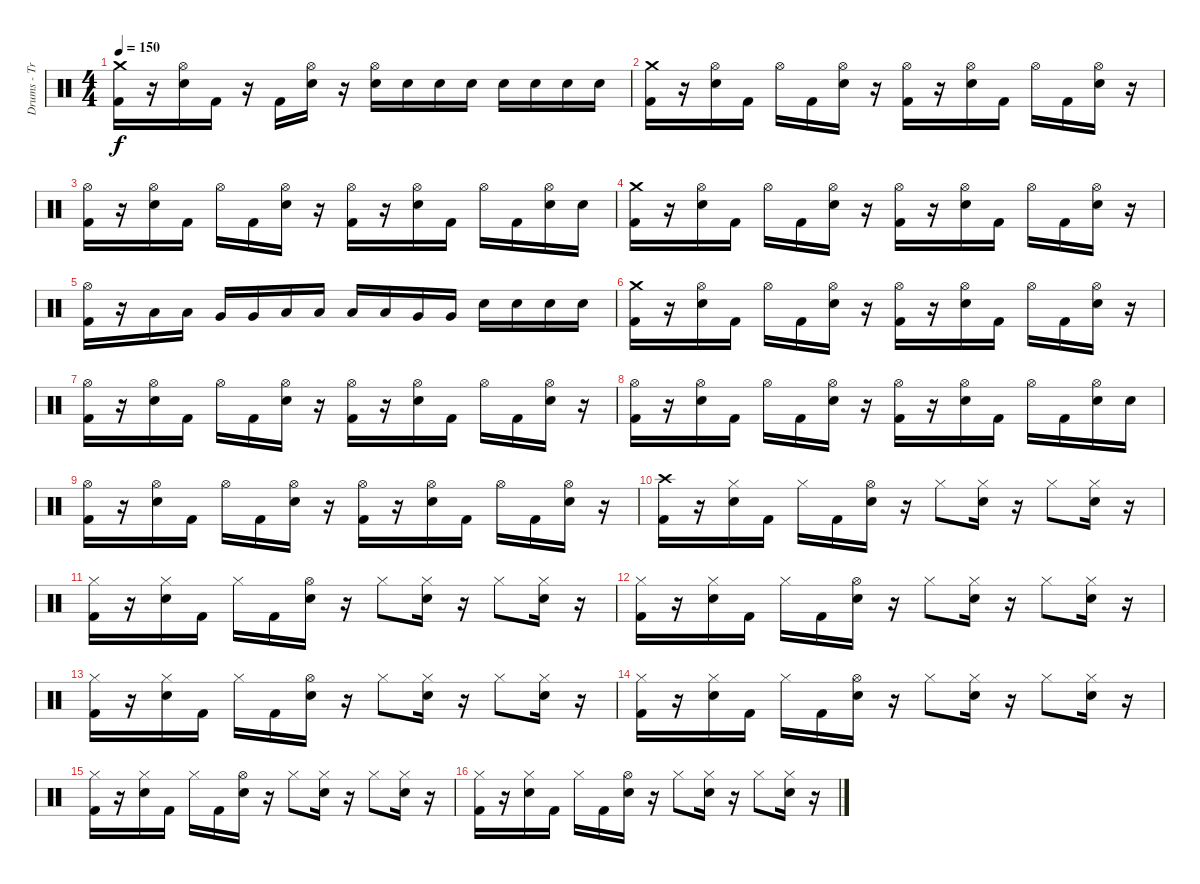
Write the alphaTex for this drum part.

\track ("Drums - Travis Barker" "Drums - Tr") {instrument percussion}
\staff {score}
\articulation defaults
\ts (4 4)
\tempo 150
\clef neutral
\ks c
("Crash medium (hit)" "Kick (hit) 2").16{dy f} r.16 ("Hi-Hat (open)" "Electric Snare (hit)").16 "Kick (hit) 2".16 r.16 "Kick (hit) 2".16 ("Hi-Hat (open)" "Electric Snare (hit)").16 r.16 ("Hi-Hat (open)" "Electric Snare (hit)").16 "Electric Snare (hit)".16 "Electric Snare (hit)".16 "Electric Snare (hit)".16 "Electric Snare (hit)".16 "Electric Snare (hit)".16 "Electric Snare (hit)".16 "Electric Snare (hit)".16 |
("Crash medium (hit)" "Kick (hit) 2").16 r.16 ("Hi-Hat (open)" "Electric Snare (hit)").16 "Kick (hit) 2".16 "Hi-Hat (open)".16 "Kick (hit) 2".16 ("Hi-Hat (open)" "Electric Snare (hit)").16 r.16 ("Hi-Hat (open)" "Kick (hit) 2").16 r.16 ("Hi-Hat (open)" "Electric Snare (hit)").16 "Kick (hit) 2".16 "Hi-Hat (open)".16 "Kick (hit) 2".16 ("Hi-Hat (open)" "Electric Snare (hit)").16 r.16 |
("Hi-Hat (open)" "Kick (hit) 2").16 r.16 ("Hi-Hat (open)" "Electric Snare (hit)").16 "Kick (hit) 2".16 "Hi-Hat (open)".16 "Kick (hit) 2".16 ("Hi-Hat (open)" "Electric Snare (hit)").16 r.16 ("Hi-Hat (open)" "Kick (hit) 2").16 r.16 ("Hi-Hat (open)" "Electric Snare (hit)").16 "Kick (hit) 2".16 "Hi-Hat (open)".16 "Kick (hit) 2".16 ("Hi-Hat (open)" "Electric Snare (hit)").16 "Electric Snare (hit)".16 |
("Crash medium (hit)" "Kick (hit) 2").16 r.16 ("Hi-Hat (open)" "Electric Snare (hit)").16 "Kick (hit) 2".16 "Hi-Hat (open)".16 "Kick (hit) 2".16 ("Hi-Hat (open)" "Electric Snare (hit)").16 r.16 ("Hi-Hat (open)" "Kick (hit) 2").16 r.16 ("Hi-Hat (open)" "Electric Snare (hit)").16 "Kick (hit) 2".16 "Hi-Hat (open)".16 "Kick (hit) 2".16 ("Hi-Hat (open)" "Electric Snare (hit)").16 r.16 |
("Hi-Hat (open)" "Kick (hit) 2").16 r.16 "Low Tom (hit)".16 "Low Tom (hit)".16 "Very Low Tom (hit)".16 "Very Low Tom (hit)".16 "Low Floor Tom (hit)".16 "Low Floor Tom (hit)".16 "Low Tom (hit)".16 "Low Tom (hit)".16 "Very Low Tom (hit)".16 "Very Low Tom (hit)".16 "Electric Snare (hit)".16 "Electric Snare (hit)".16 "Electric Snare (hit)".16 "Electric Snare (hit)".16 |
("Crash medium (hit)" "Kick (hit) 2").16 r.16 ("Hi-Hat (open)" "Electric Snare (hit)").16 "Kick (hit) 2".16 "Hi-Hat (open)".16 "Kick (hit) 2".16 ("Hi-Hat (open)" "Electric Snare (hit)").16 r.16 ("Hi-Hat (open)" "Kick (hit) 2").16 r.16 ("Hi-Hat (open)" "Electric Snare (hit)").16 "Kick (hit) 2".16 "Hi-Hat (open)".16 "Kick (hit) 2".16 ("Hi-Hat (open)" "Electric Snare (hit)").16 r.16 |
("Hi-Hat (open)" "Kick (hit) 2").16 r.16 ("Hi-Hat (open)" "Electric Snare (hit)").16 "Kick (hit) 2".16 "Hi-Hat (open)".16 "Kick (hit) 2".16 ("Hi-Hat (open)" "Electric Snare (hit)").16 r.16 ("Hi-Hat (open)" "Kick (hit) 2").16 r.16 ("Hi-Hat (open)" "Electric Snare (hit)").16 "Kick (hit) 2".16 "Hi-Hat (open)".16 "Kick (hit) 2".16 ("Hi-Hat (open)" "Electric Snare (hit)").16 r.16 |
("Hi-Hat (open)" "Kick (hit) 2").16 r.16 ("Hi-Hat (open)" "Electric Snare (hit)").16 "Kick (hit) 2".16 "Hi-Hat (open)".16 "Kick (hit) 2".16 ("Hi-Hat (open)" "Electric Snare (hit)").16 r.16 ("Hi-Hat (open)" "Kick (hit) 2").16 r.16 ("Hi-Hat (open)" "Electric Snare (hit)").16 "Kick (hit) 2".16 "Hi-Hat (open)".16 "Kick (hit) 2".16 ("Hi-Hat (open)" "Electric Snare (hit)").16 "Electric Snare (hit)".16 |
("Hi-Hat (open)" "Kick (hit) 2").16 r.16 ("Hi-Hat (open)" "Electric Snare (hit)").16 "Kick (hit) 2".16 "Hi-Hat (open)".16 "Kick (hit) 2".16 ("Hi-Hat (open)" "Electric Snare (hit)").16 r.16 ("Hi-Hat (open)" "Kick (hit) 2").16 r.16 ("Hi-Hat (open)" "Electric Snare (hit)").16 "Kick (hit) 2".16 "Hi-Hat (open)".16 "Kick (hit) 2".16 ("Hi-Hat (open)" "Electric Snare (hit)").16 r.16 |
("Crash high (hit)" "Kick (hit) 2").16 r.16 ("Hi-Hat (closed)" "Electric Snare (hit)").16 "Kick (hit) 2".16 "Hi-Hat (closed)".16 "Kick (hit) 2".16 ("Hi-Hat (open)" "Electric Snare (hit)").16 r.16 "Hi-Hat (closed)".8 ("Hi-Hat (closed)" "Electric Snare (hit)").16 r.16 "Hi-Hat (closed)".8 ("Hi-Hat (closed)" "Electric Snare (hit)").16 r.16 |
("Hi-Hat (closed)" "Kick (hit) 2").16 r.16 ("Hi-Hat (closed)" "Electric Snare (hit)").16 "Kick (hit) 2".16 "Hi-Hat (closed)".16 "Kick (hit) 2".16 ("Hi-Hat (open)" "Electric Snare (hit)").16 r.16 "Hi-Hat (closed)".8 ("Hi-Hat (closed)" "Electric Snare (hit)").16 r.16 "Hi-Hat (closed)".8 ("Hi-Hat (closed)" "Electric Snare (hit)").16 r.16 |
("Hi-Hat (closed)" "Kick (hit) 2").16 r.16 ("Hi-Hat (closed)" "Electric Snare (hit)").16 "Kick (hit) 2".16 "Hi-Hat (closed)".16 "Kick (hit) 2".16 ("Hi-Hat (open)" "Electric Snare (hit)").16 r.16 "Hi-Hat (closed)".8 ("Hi-Hat (closed)" "Electric Snare (hit)").16 r.16 "Hi-Hat (closed)".8 ("Hi-Hat (closed)" "Electric Snare (hit)").16 r.16 |
("Hi-Hat (closed)" "Kick (hit) 2").16 r.16 ("Hi-Hat (closed)" "Electric Snare (hit)").16 "Kick (hit) 2".16 "Hi-Hat (closed)".16 "Kick (hit) 2".16 ("Hi-Hat (open)" "Electric Snare (hit)").16 r.16 "Hi-Hat (closed)".8 ("Hi-Hat (closed)" "Electric Snare (hit)").16 r.16 "Hi-Hat (closed)".8 ("Hi-Hat (closed)" "Electric Snare (hit)").16 r.16 |
("Hi-Hat (closed)" "Kick (hit) 2").16 r.16 ("Hi-Hat (closed)" "Electric Snare (hit)").16 "Kick (hit) 2".16 "Hi-Hat (closed)".16 "Kick (hit) 2".16 ("Hi-Hat (open)" "Electric Snare (hit)").16 r.16 "Hi-Hat (closed)".8 ("Hi-Hat (closed)" "Electric Snare (hit)").16 r.16 "Hi-Hat (closed)".8 ("Hi-Hat (closed)" "Electric Snare (hit)").16 r.16 |
("Hi-Hat (closed)" "Kick (hit) 2").16 r.16 ("Hi-Hat (closed)" "Electric Snare (hit)").16 "Kick (hit) 2".16 "Hi-Hat (closed)".16 "Kick (hit) 2".16 ("Hi-Hat (open)" "Electric Snare (hit)").16 r.16 "Hi-Hat (closed)".8 ("Hi-Hat (closed)" "Electric Snare (hit)").16 r.16 "Hi-Hat (closed)".8 ("Hi-Hat (closed)" "Electric Snare (hit)").16 r.16 |
("Hi-Hat (closed)" "Kick (hit) 2").16 r.16 ("Hi-Hat (closed)" "Electric Snare (hit)").16 "Kick (hit) 2".16 "Hi-Hat (closed)".16 "Kick (hit) 2".16 ("Hi-Hat (open)" "Electric Snare (hit)").16 r.16 "Hi-Hat (closed)".8 ("Hi-Hat (closed)" "Electric Snare (hit)").16 r.16 "Hi-Hat (closed)".8 ("Hi-Hat (closed)" "Electric Snare (hit)").16 r.16
